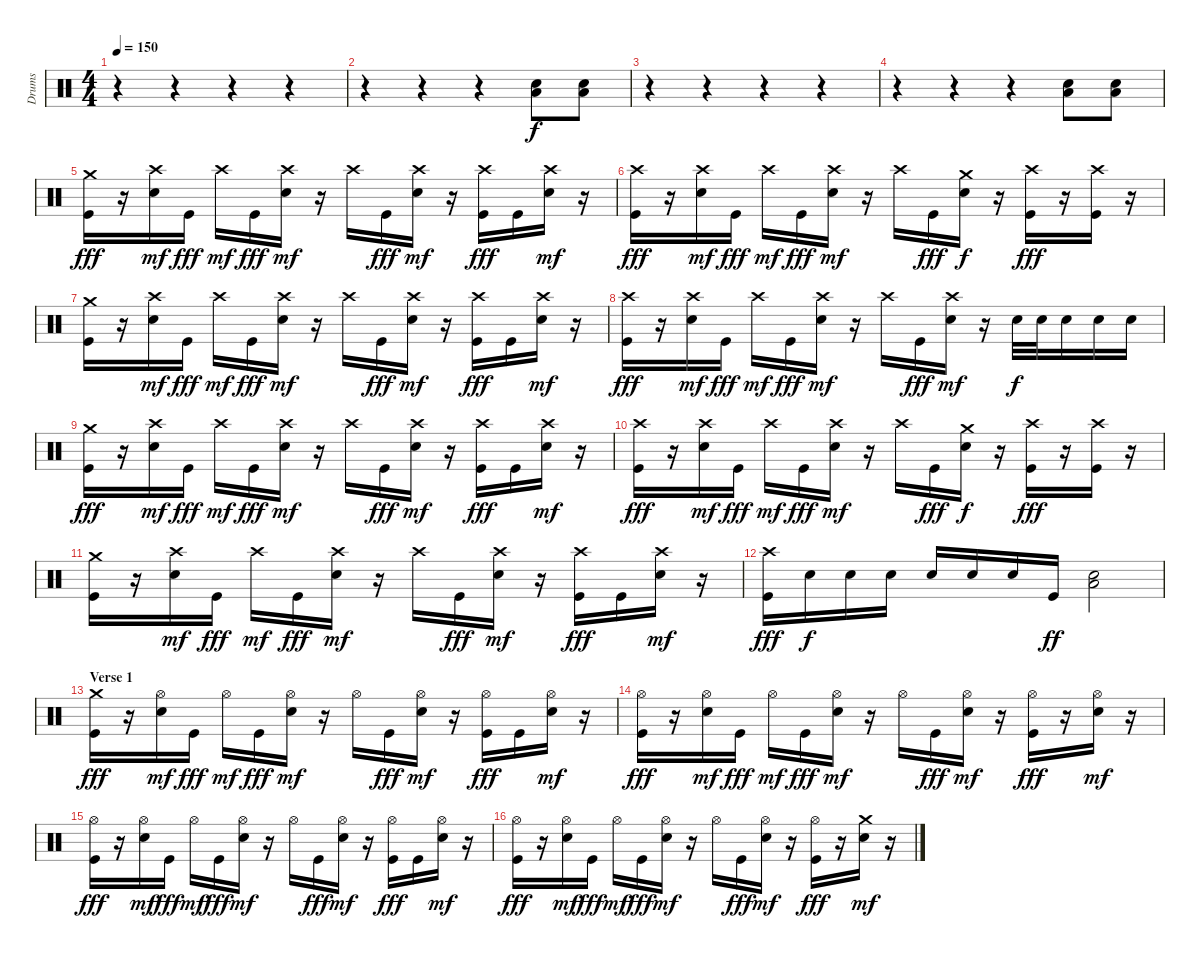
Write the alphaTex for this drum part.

\track ("Drums" "Drums") {instrument percussion}
\staff {score}
\articulation defaults
\ts (4 4)
\tempo 150
\clef neutral
\ks c
r.4{dy f} r.4 r.4 r.4 |
r.4 r.4 r.4 ("Electric Snare (hit)" "Low Floor Tom (hit)").8 ("Electric Snare (hit)" "Low Floor Tom (hit)").8 |
r.4 r.4 r.4 r.4 |
r.4 r.4 r.4 ("Electric Snare (hit)" "Low Floor Tom (hit)").8 ("Electric Snare (hit)" "Low Floor Tom (hit)").8 |
("Crash medium (hit)" "Kick (hit)").16{dy fff} r.16 ("Crash high (hit)" "Electric Snare (hit)").16{dy mf} "Kick (hit)".16{dy fff} "Crash high (hit)".16{dy mf} "Kick (hit)".16{dy fff} ("Crash high (hit)" "Electric Snare (hit)").16{dy mf} r.16 "Crash high (hit)".16 "Kick (hit)".16{dy fff} ("Crash high (hit)" "Electric Snare (hit)").16{dy mf} r.16 ("Crash high (hit)" "Kick (hit)").16{dy fff} "Kick (hit)".16 ("Crash high (hit)" "Electric Snare (hit)").16{dy mf} r.16 |
("Crash high (hit)" "Kick (hit)").16{dy fff} r.16 ("Crash high (hit)" "Electric Snare (hit)").16{dy mf} "Kick (hit)".16{dy fff} "Crash high (hit)".16{dy mf} "Kick (hit)".16{dy fff} ("Crash high (hit)" "Electric Snare (hit)").16{dy mf} r.16 "Crash high (hit)".16 "Kick (hit)".16{dy fff} ("Crash medium (hit)" "Electric Snare (hit)").16{dy f} r.16 ("Crash high (hit)" "Kick (hit)").16{dy fff} r.16 ("Crash high (hit)" "Kick (hit)").16 r.16 |
("Crash medium (hit)" "Kick (hit)").16 r.16 ("Crash high (hit)" "Electric Snare (hit)").16{dy mf} "Kick (hit)".16{dy fff} "Crash high (hit)".16{dy mf} "Kick (hit)".16{dy fff} ("Crash high (hit)" "Electric Snare (hit)").16{dy mf} r.16 "Crash high (hit)".16 "Kick (hit)".16{dy fff} ("Crash high (hit)" "Electric Snare (hit)").16{dy mf} r.16 ("Crash high (hit)" "Kick (hit)").16{dy fff} "Kick (hit)".16 ("Crash high (hit)" "Electric Snare (hit)").16{dy mf} r.16 |
("Crash high (hit)" "Kick (hit)").16{dy fff} r.16 ("Crash high (hit)" "Electric Snare (hit)").16{dy mf} "Kick (hit)".16{dy fff} "Crash high (hit)".16{dy mf} "Kick (hit)".16{dy fff} ("Crash high (hit)" "Electric Snare (hit)").16{dy mf} r.16 "Crash high (hit)".16 "Kick (hit)".16{dy fff} ("Crash high (hit)" "Electric Snare (hit)").16{dy mf} r.16 "Electric Snare (hit)".32{dy f} "Electric Snare (hit)".32 "Electric Snare (hit)".16 "Electric Snare (hit)".16 "Electric Snare (hit)".16 |
("Crash medium (hit)" "Kick (hit)").16{dy fff} r.16 ("Crash high (hit)" "Electric Snare (hit)").16{dy mf} "Kick (hit)".16{dy fff} "Crash high (hit)".16{dy mf} "Kick (hit)".16{dy fff} ("Crash high (hit)" "Electric Snare (hit)").16{dy mf} r.16 "Crash high (hit)".16 "Kick (hit)".16{dy fff} ("Crash high (hit)" "Electric Snare (hit)").16{dy mf} r.16 ("Crash high (hit)" "Kick (hit)").16{dy fff} "Kick (hit)".16 ("Crash high (hit)" "Electric Snare (hit)").16{dy mf} r.16 |
("Crash high (hit)" "Kick (hit)").16{dy fff} r.16 ("Crash high (hit)" "Electric Snare (hit)").16{dy mf} "Kick (hit)".16{dy fff} "Crash high (hit)".16{dy mf} "Kick (hit)".16{dy fff} ("Crash high (hit)" "Electric Snare (hit)").16{dy mf} r.16 "Crash high (hit)".16 "Kick (hit)".16{dy fff} ("Crash medium (hit)" "Electric Snare (hit)").16{dy f} r.16 ("Crash high (hit)" "Kick (hit)").16{dy fff} r.16 ("Crash high (hit)" "Kick (hit)").16 r.16 |
("Crash medium (hit)" "Kick (hit)").16 r.16 ("Crash high (hit)" "Electric Snare (hit)").16{dy mf} "Kick (hit)".16{dy fff} "Crash high (hit)".16{dy mf} "Kick (hit)".16{dy fff} ("Crash high (hit)" "Electric Snare (hit)").16{dy mf} r.16 "Crash high (hit)".16 "Kick (hit)".16{dy fff} ("Crash high (hit)" "Electric Snare (hit)").16{dy mf} r.16 ("Crash high (hit)" "Kick (hit)").16{dy fff} "Kick (hit)".16 ("Crash high (hit)" "Electric Snare (hit)").16{dy mf} r.16 |
("Crash high (hit)" "Kick (hit)").16{dy fff} "Electric Snare (hit)".16{dy f} "Electric Snare (hit)".16 "Electric Snare (hit)".16 "Electric Snare (hit)".16 "Electric Snare (hit)".16 "Electric Snare (hit)".16 "Kick (hit)".16{dy ff} ("Electric Snare (hit)" "Low Floor Tom (hit)").2 |
\section ("" "Verse 1")
("Crash medium (hit)" "Kick (hit)").16{dy fff} r.16 ("Hi-Hat (open)" "Electric Snare (hit)").16{dy mf} "Kick (hit)".16{dy fff} "Hi-Hat (open)".16{dy mf} "Kick (hit)".16{dy fff} ("Hi-Hat (open)" "Electric Snare (hit)").16{dy mf} r.16 "Hi-Hat (open)".16 "Kick (hit)".16{dy fff} ("Hi-Hat (open)" "Electric Snare (hit)").16{dy mf} r.16 ("Hi-Hat (open)" "Kick (hit)").16{dy fff} "Kick (hit)".16 ("Hi-Hat (open)" "Electric Snare (hit)").16{dy mf} r.16 |
("Hi-Hat (open)" "Kick (hit)").16{dy fff} r.16 ("Hi-Hat (open)" "Electric Snare (hit)").16{dy mf} "Kick (hit)".16{dy fff} "Hi-Hat (open)".16{dy mf} "Kick (hit)".16{dy fff} ("Hi-Hat (open)" "Electric Snare (hit)").16{dy mf} r.16 "Hi-Hat (open)".16 "Kick (hit)".16{dy fff} ("Hi-Hat (open)" "Electric Snare (hit)").16{dy mf} r.16 ("Hi-Hat (open)" "Kick (hit)").16{dy fff} r.16 ("Hi-Hat (open)" "Electric Snare (hit)").16{dy mf} r.16 |
("Hi-Hat (open)" "Kick (hit)").16{dy fff} r.16 ("Hi-Hat (open)" "Electric Snare (hit)").16{dy mf} "Kick (hit)".16{dy fff} "Hi-Hat (open)".16{dy mf} "Kick (hit)".16{dy fff} ("Hi-Hat (open)" "Electric Snare (hit)").16{dy mf} r.16 "Hi-Hat (open)".16 "Kick (hit)".16{dy fff} ("Hi-Hat (open)" "Electric Snare (hit)").16{dy mf} r.16 ("Hi-Hat (open)" "Kick (hit)").16{dy fff} "Kick (hit)".16 ("Hi-Hat (open)" "Electric Snare (hit)").16{dy mf} r.16 |
("Hi-Hat (open)" "Kick (hit)").16{dy fff} r.16 ("Hi-Hat (open)" "Electric Snare (hit)").16{dy mf} "Kick (hit)".16{dy fff} "Hi-Hat (open)".16{dy mf} "Kick (hit)".16{dy fff} ("Hi-Hat (open)" "Electric Snare (hit)").16{dy mf} r.16 "Hi-Hat (open)".16 "Kick (hit)".16{dy fff} ("Hi-Hat (open)" "Electric Snare (hit)").16{dy mf} r.16 ("Hi-Hat (open)" "Kick (hit)").16{dy fff} r.16 ("Crash medium (hit)" "Electric Snare (hit)").16{dy mf} r.16
